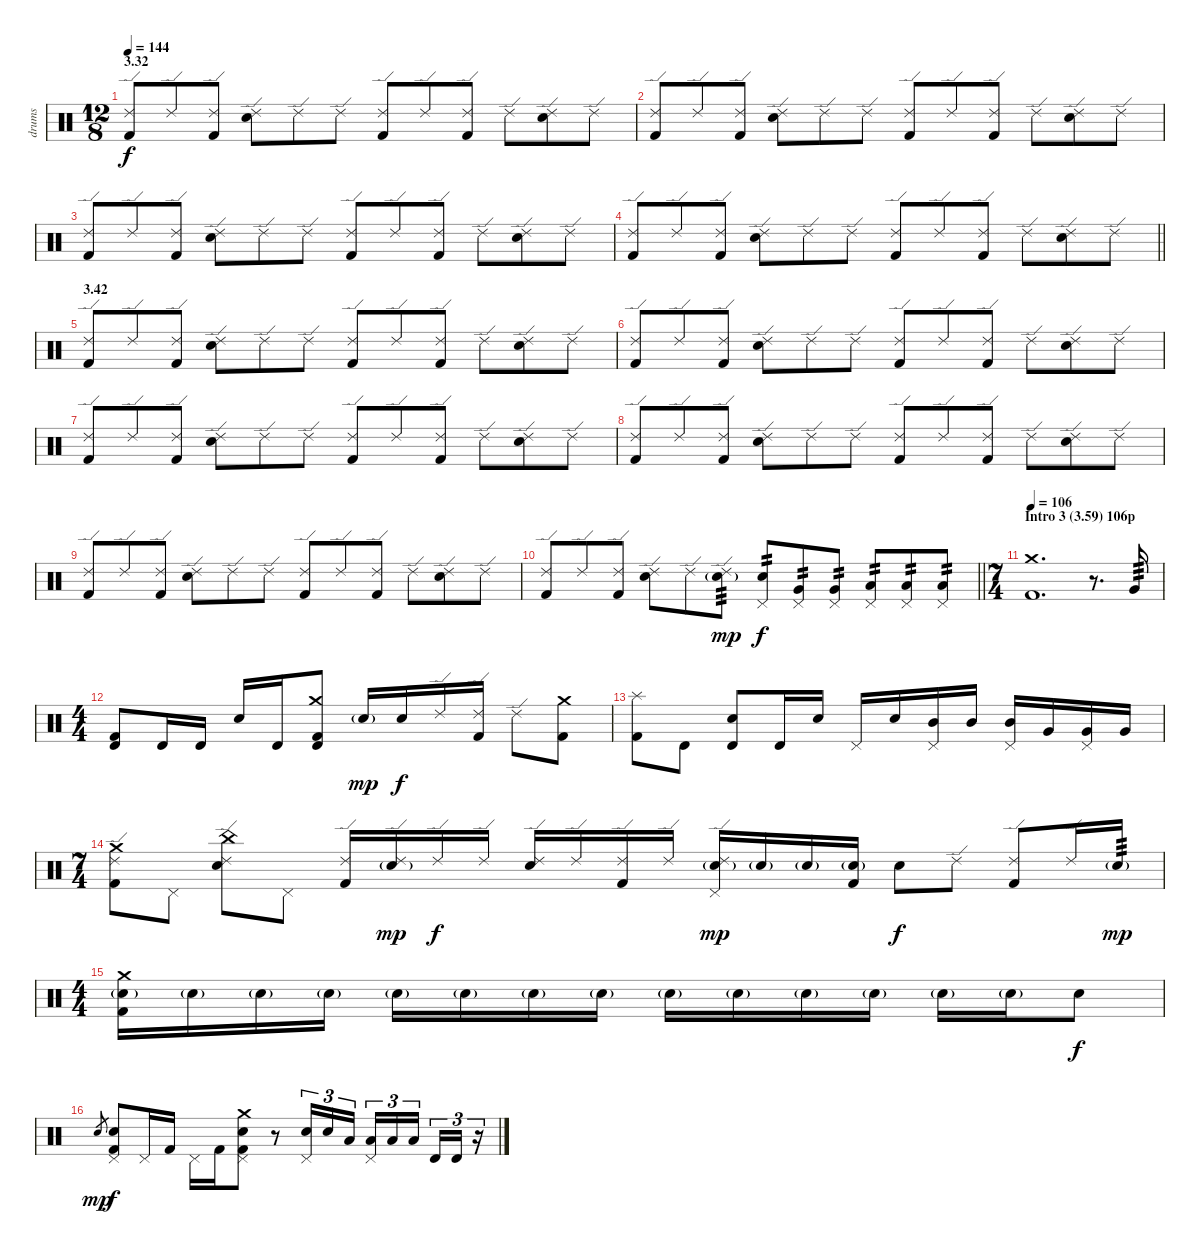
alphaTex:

\track ("drums" "drums") {instrument percussion}
\staff {score}
\articulation defaults
\ts (12 8)
\section ("" "3.32")
\tempo 144
\clef neutral
\ks c
("Ride (edge) 2" "Kick (hit) 2").8{dy f} "Ride (edge) 2".8 ("Ride (edge) 2" "Kick (hit) 2").8 ("Ride (edge) 2" "Electric Snare (hit)").8 "Ride (edge) 2".8 "Ride (edge) 2".8 ("Ride (edge) 2" "Kick (hit) 2").8 "Ride (edge) 2".8 ("Ride (edge) 2" "Kick (hit) 2").8 "Ride (edge) 2".8 ("Ride (edge) 2" "Electric Snare (hit)").8 "Ride (edge) 2".8 |
("Ride (edge) 2" "Kick (hit) 2").8 "Ride (edge) 2".8 ("Ride (edge) 2" "Kick (hit) 2").8 ("Ride (edge) 2" "Electric Snare (hit)").8 "Ride (edge) 2".8 "Ride (edge) 2".8 ("Ride (edge) 2" "Kick (hit) 2").8 "Ride (edge) 2".8 ("Ride (edge) 2" "Kick (hit) 2").8 "Ride (edge) 2".8 ("Ride (edge) 2" "Electric Snare (hit)").8 "Ride (edge) 2".8 |
("Ride (edge) 2" "Kick (hit) 2").8 "Ride (edge) 2".8 ("Ride (edge) 2" "Kick (hit) 2").8 ("Ride (edge) 2" "Electric Snare (hit)").8 "Ride (edge) 2".8 "Ride (edge) 2".8 ("Ride (edge) 2" "Kick (hit) 2").8 "Ride (edge) 2".8 ("Ride (edge) 2" "Kick (hit) 2").8 "Ride (edge) 2".8 ("Ride (edge) 2" "Electric Snare (hit)").8 "Ride (edge) 2".8 |
\barLineRight lightlight
("Ride (edge) 2" "Kick (hit) 2").8 "Ride (edge) 2".8 ("Ride (edge) 2" "Kick (hit) 2").8 ("Ride (edge) 2" "Electric Snare (hit)").8 "Ride (edge) 2".8 "Ride (edge) 2".8 ("Ride (edge) 2" "Kick (hit) 2").8 "Ride (edge) 2".8 ("Ride (edge) 2" "Kick (hit) 2").8 "Ride (edge) 2".8 ("Ride (edge) 2" "Electric Snare (hit)").8 "Ride (edge) 2".8 |
\section ("" "3.42")
("Ride (edge) 2" "Kick (hit) 2").8 "Ride (edge) 2".8 ("Ride (edge) 2" "Kick (hit) 2").8 ("Ride (edge) 2" "Electric Snare (hit)").8 "Ride (edge) 2".8 "Ride (edge) 2".8 ("Ride (edge) 2" "Kick (hit) 2").8 "Ride (edge) 2".8 ("Ride (edge) 2" "Kick (hit) 2").8 "Ride (edge) 2".8 ("Ride (edge) 2" "Electric Snare (hit)").8 "Ride (edge) 2".8 |
("Ride (edge) 2" "Kick (hit) 2").8 "Ride (edge) 2".8 ("Ride (edge) 2" "Kick (hit) 2").8 ("Ride (edge) 2" "Electric Snare (hit)").8 "Ride (edge) 2".8 "Ride (edge) 2".8 ("Ride (edge) 2" "Kick (hit) 2").8 "Ride (edge) 2".8 ("Ride (edge) 2" "Kick (hit) 2").8 "Ride (edge) 2".8 ("Ride (edge) 2" "Electric Snare (hit)").8 "Ride (edge) 2".8 |
("Ride (edge) 2" "Kick (hit) 2").8 "Ride (edge) 2".8 ("Ride (edge) 2" "Kick (hit) 2").8 ("Ride (edge) 2" "Electric Snare (hit)").8 "Ride (edge) 2".8 "Ride (edge) 2".8 ("Ride (edge) 2" "Kick (hit) 2").8 "Ride (edge) 2".8 ("Ride (edge) 2" "Kick (hit) 2").8 "Ride (edge) 2".8 ("Ride (edge) 2" "Electric Snare (hit)").8 "Ride (edge) 2".8 |
("Ride (edge) 2" "Kick (hit) 2").8 "Ride (edge) 2".8 ("Ride (edge) 2" "Kick (hit) 2").8 ("Ride (edge) 2" "Electric Snare (hit)").8 "Ride (edge) 2".8 "Ride (edge) 2".8 ("Ride (edge) 2" "Kick (hit) 2").8 "Ride (edge) 2".8 ("Ride (edge) 2" "Kick (hit) 2").8 "Ride (edge) 2".8 ("Ride (edge) 2" "Electric Snare (hit)").8 "Ride (edge) 2".8 |
("Ride (edge) 2" "Kick (hit) 2").8 "Ride (edge) 2".8 ("Ride (edge) 2" "Kick (hit) 2").8 ("Ride (edge) 2" "Electric Snare (hit)").8 "Ride (edge) 2".8 "Ride (edge) 2".8 ("Ride (edge) 2" "Kick (hit) 2").8 "Ride (edge) 2".8 ("Ride (edge) 2" "Kick (hit) 2").8 "Ride (edge) 2".8 ("Ride (edge) 2" "Electric Snare (hit)").8 "Ride (edge) 2".8 |
\barLineRight lightlight
("Ride (edge) 2" "Kick (hit) 2").8 "Ride (edge) 2".8 ("Ride (edge) 2" "Kick (hit) 2").8 ("Ride (edge) 2" "Electric Snare (hit)").8 "Ride (edge) 2".8 ("Ride (edge) 2" "Electric Snare (hit)"{g}).8{tp 3 dy mp} ("Pedal Hi-Hat (hit)" "Electric Snare (hit)").8{tp 2 dy f} ("Pedal Hi-Hat (hit)" "Very Low Tom (hit)").8{tp 2} ("Pedal Hi-Hat (hit)" "Very Low Tom (hit)").8{tp 2} ("Pedal Hi-Hat (hit)" "Low Tom (hit)").8{tp 2} ("Pedal Hi-Hat (hit)" "Low Tom (hit)").8{tp 2} ("Pedal Hi-Hat (hit)" "Low Tom (hit)").8{tp 2} |
\ts (7 4)
\section ("" "Intro 3 (3.59) 106p")
\tempo 106
("Crash medium (hit)" "Kick (hit) 2").1{d} r.8{d} "Very Low Tom (hit)".16{tp 3} |
\ts (4 4)
("Timbale high (hit)" "Kick (hit) 2").8 "Timbale high (hit)".16 "Timbale high (hit)".16 "Electric Snare (hit)".16 "Timbale high (hit)".16 ("Timbale high (hit)" "Crash medium (hit)" "Kick (hit) 2").8 "Electric Snare (hit)"{g}.16{dy mp} "Electric Snare (hit)".16{dy f} "Ride (edge) 2".16 ("Ride (edge) 2" "Kick (hit) 2").16 "Ride (edge) 2".8 ("Crash medium (hit)" "Kick (hit) 2").8 |
("Splash (hit)" "Kick (hit) 2").8 "Timbale high (hit)".8 ("Timbale high (hit)" "Electric Snare (hit)").8 "Timbale high (hit)".16 "Electric Snare (hit)".16 "Pedal Hi-Hat (hit)".16 "Electric Snare (hit)".16 ("Pedal Hi-Hat (hit)" "Mid Tom (hit)").16 "Mid Tom (hit)".16 ("Pedal Hi-Hat (hit)" "Mid Tom (hit)").16 "Very Low Tom (hit)".16 ("Pedal Hi-Hat (hit)" "Very Low Tom (hit)").16 "Very Low Tom (hit)".16 |
\ts (7 4)
("Ride (edge) 2" "Crash medium (hit)" "Kick (hit) 2").8 "Pedal Hi-Hat (hit)".8 ("Ride (edge) 2" "China (hit)" "Electric Snare (hit)").8 "Pedal Hi-Hat (hit)".8 ("Ride (edge) 2" "Kick (hit) 2").16 ("Ride (edge) 2" "Electric Snare (hit)"{g}).16{dy mp} "Ride (edge) 2".16{dy f} "Ride (edge) 2".16 ("Ride (edge) 2" "Electric Snare (hit)").16 "Ride (edge) 2".16 ("Ride (edge) 2" "Kick (hit) 2").16 "Ride (edge) 2".16 ("Ride (edge) 2" "Pedal Hi-Hat (hit)" "Electric Snare (hit)"{g}).16{dy mp} "Electric Snare (hit)"{g}.16 "Electric Snare (hit)"{g}.16 ("Electric Snare (hit)"{g} "Kick (hit) 2").16 "Electric Snare (hit)".8{dy f} "Ride (edge) 2".8 ("Ride (edge) 2" "Kick (hit) 2").8 "Ride (edge) 2".16 "Electric Snare (hit)"{g}.16{tp 3 dy mp} |
\ts (4 4)
("Crash medium (hit)" "Electric Snare (hit)"{g} "Kick (hit) 2").16 "Electric Snare (hit)"{g}.16 "Electric Snare (hit)"{g}.16 "Electric Snare (hit)"{g}.16 "Electric Snare (hit)"{g}.16 "Electric Snare (hit)"{g}.16 "Electric Snare (hit)"{g}.16 "Electric Snare (hit)"{g}.16 "Electric Snare (hit)"{g}.16 "Electric Snare (hit)"{g}.16 "Electric Snare (hit)"{g}.16 "Electric Snare (hit)"{g}.16 "Electric Snare (hit)"{g}.16 "Electric Snare (hit)"{g}.16 "Electric Snare (hit)".8{dy f} |
"Electric Snare (hit)".8{gr dy mp} ("Pedal Hi-Hat (hit)" "Electric Snare (hit)" "Kick (hit) 2").8{dy f} "Pedal Hi-Hat (hit)".16 "Kick (hit) 2".16 "Pedal Hi-Hat (hit)".16 "Kick (hit) 2".16 ("Pedal Hi-Hat (hit)" "Crash medium (hit)" "Electric Snare (hit)" "Kick (hit) 2").8 r.8 ("Pedal Hi-Hat (hit)" "Electric Snare (hit)").16{tu (3 2)} "Electric Snare (hit)".16{tu (3 2)} "Low Tom (hit)".16{tu (3 2)} ("Pedal Hi-Hat (hit)" "Low Tom (hit)").16{tu (3 2)} "Low Tom (hit)".16{tu (3 2)} "Low Tom (hit)".16{tu (3 2) beam splitsecondary} "Timbale high (hit)".16{tu (3 2)} "Timbale high (hit)".16{tu (3 2)} r.16{tu (3 2)}
